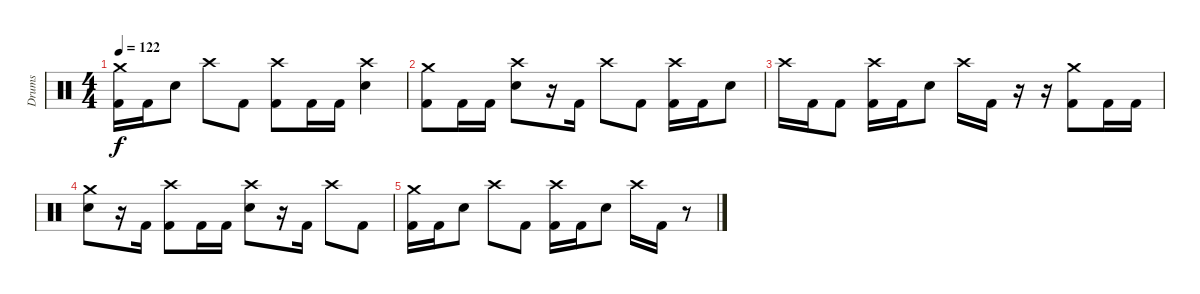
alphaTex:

\track ("Drums" "Drums") {instrument percussion}
\staff {score}
\articulation defaults
\ts (4 4)
\tempo 122
\clef neutral
\ks c
("Crash medium (hit)" "Kick (hit) 2").16{dy f} "Kick (hit) 2".16 "Electric Snare (hit)".8 "Crash high (hit)".8 "Kick (hit) 2".8 ("Crash high (hit)" "Kick (hit) 2").8 "Kick (hit) 2".16 "Kick (hit) 2".16 ("Crash high (hit)" "Electric Snare (hit)").4 |
("Crash medium (hit)" "Kick (hit) 2").8 "Kick (hit) 2".16 "Kick (hit) 2".16 ("Crash high (hit)" "Electric Snare (hit)").8 r.16 "Kick (hit) 2".16 "Crash high (hit)".8 "Kick (hit) 2".8 ("Crash high (hit)" "Kick (hit) 2").16 "Kick (hit) 2".16 "Electric Snare (hit)".8 |
"Crash high (hit)".16 "Kick (hit) 2".16 "Kick (hit) 2".8 ("Crash high (hit)" "Kick (hit) 2").16 "Kick (hit) 2".16 "Electric Snare (hit)".8 "Crash high (hit)".16 "Kick (hit) 2".16 r.16 r.16 ("Crash medium (hit)" "Kick (hit) 2").8 "Kick (hit) 2".16 "Kick (hit) 2".16 |
("Crash medium (hit)" "Electric Snare (hit)").8 r.16 "Kick (hit) 2".16 ("Crash high (hit)" "Kick (hit) 2").8 "Kick (hit) 2".16 "Kick (hit) 2".16 ("Crash high (hit)" "Electric Snare (hit)").8 r.16 "Kick (hit) 2".16 "Crash high (hit)".8 "Kick (hit) 2".8 |
("Crash medium (hit)" "Kick (hit) 2").16 "Kick (hit) 2".16 "Electric Snare (hit)".8 "Crash high (hit)".8 "Kick (hit) 2".8 ("Crash high (hit)" "Kick (hit) 2").16 "Kick (hit) 2".16 "Electric Snare (hit)".8 "Crash high (hit)".16 "Kick (hit) 2".16 r.8
